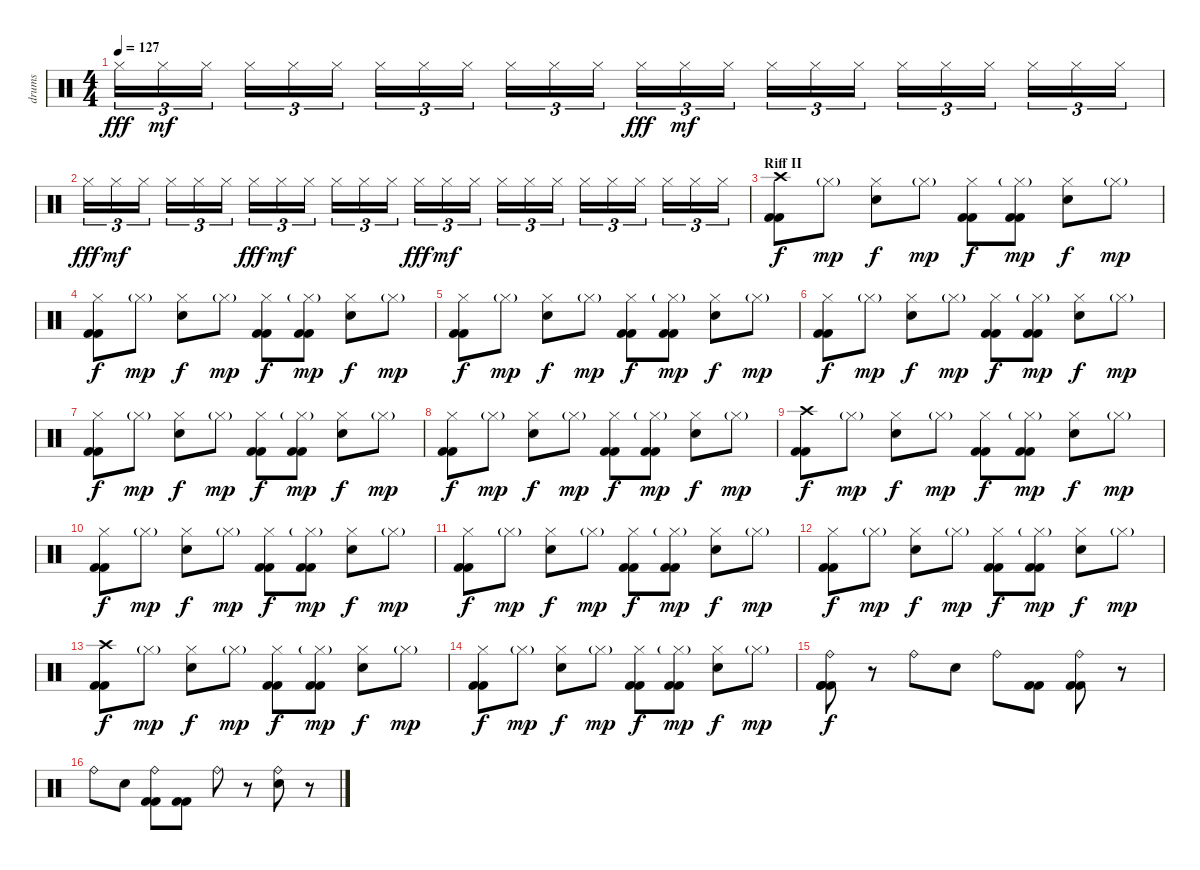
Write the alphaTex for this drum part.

\track ("drums" "drums") {instrument percussion}
\staff {score}
\articulation defaults
\ts (4 4)
\tempo 127
\clef neutral
\ks c "Hi-Hat (closed)".16{tu (3 2) dy fff} "Hi-Hat (closed)".16{tu (3 2) dy mf} "Hi-Hat (closed)".16{tu (3 2)} "Hi-Hat (closed)".16{tu (3 2)} "Hi-Hat (closed)".16{tu (3 2)} "Hi-Hat (closed)".16{tu (3 2)} "Hi-Hat (closed)".16{tu (3 2)} "Hi-Hat (closed)".16{tu (3 2)} "Hi-Hat (closed)".16{tu (3 2)} "Hi-Hat (closed)".16{tu (3 2)} "Hi-Hat (closed)".16{tu (3 2)} "Hi-Hat (closed)".16{tu (3 2)} "Hi-Hat (closed)".16{tu (3 2) dy fff} "Hi-Hat (closed)".16{tu (3 2) dy mf} "Hi-Hat (closed)".16{tu (3 2)} "Hi-Hat (closed)".16{tu (3 2)} "Hi-Hat (closed)".16{tu (3 2)} "Hi-Hat (closed)".16{tu (3 2)} "Hi-Hat (closed)".16{tu (3 2)} "Hi-Hat (closed)".16{tu (3 2)} "Hi-Hat (closed)".16{tu (3 2)} "Hi-Hat (closed)".16{tu (3 2)} "Hi-Hat (closed)".16{tu (3 2)} "Hi-Hat (closed)".16{tu (3 2)}
|
"Hi-Hat (closed)".16{tu (3 2) dy fff} "Hi-Hat (closed)".16{tu (3 2) dy mf} "Hi-Hat (closed)".16{tu (3 2)} "Hi-Hat (closed)".16{tu (3 2)} "Hi-Hat (closed)".16{tu (3 2)} "Hi-Hat (closed)".16{tu (3 2)} "Hi-Hat (closed)".16{tu (3 2) dy fff} "Hi-Hat (closed)".16{tu (3 2) dy mf} "Hi-Hat (closed)".16{tu (3 2)} "Hi-Hat (closed)".16{tu (3 2)} "Hi-Hat (closed)".16{tu (3 2)} "Hi-Hat (closed)".16{tu (3 2)} "Hi-Hat (closed)".16{tu (3 2) dy fff} "Hi-Hat (closed)".16{tu (3 2) dy mf} "Hi-Hat (closed)".16{tu (3 2)} "Hi-Hat (closed)".16{tu (3 2)} "Hi-Hat (closed)".16{tu (3 2)} "Hi-Hat (closed)".16{tu (3 2)} "Hi-Hat (closed)".16{tu (3 2)} "Hi-Hat (closed)".16{tu (3 2)} "Hi-Hat (closed)".16{tu (3 2)} "Hi-Hat (closed)".16{tu (3 2)} "Hi-Hat (closed)".16{tu (3 2)} "Hi-Hat (closed)".16{tu (3 2)} |
\section ("" "Riff II")
("Crash high (hit)" "Kick (hit) 2" "Kick (hit) 2").8{dy f} "Hi-Hat (closed)"{g}.8{dy mp} ("Hi-Hat (closed)" "Electric Snare (hit)").8{dy f} "Hi-Hat (closed)"{g}.8{dy mp} ("Hi-Hat (closed)" "Kick (hit) 2" "Kick (hit) 2").8{dy f} ("Hi-Hat (closed)"{g} "Kick (hit) 2" "Kick (hit) 2").8{dy mp} ("Hi-Hat (closed)" "Electric Snare (hit)").8{dy f} "Hi-Hat (closed)"{g}.8{dy mp} |
("Hi-Hat (closed)" "Kick (hit) 2" "Kick (hit) 2").8{dy f} "Hi-Hat (closed)"{g}.8{dy mp} ("Hi-Hat (closed)" "Electric Snare (hit)").8{dy f} "Hi-Hat (closed)"{g}.8{dy mp} ("Hi-Hat (closed)" "Kick (hit) 2" "Kick (hit) 2").8{dy f} ("Hi-Hat (closed)"{g} "Kick (hit) 2" "Kick (hit) 2").8{dy mp} ("Hi-Hat (closed)" "Electric Snare (hit)").8{dy f} "Hi-Hat (closed)"{g}.8{dy mp} |
("Hi-Hat (closed)" "Kick (hit) 2" "Kick (hit) 2").8{dy f} "Hi-Hat (closed)"{g}.8{dy mp} ("Hi-Hat (closed)" "Electric Snare (hit)").8{dy f} "Hi-Hat (closed)"{g}.8{dy mp} ("Hi-Hat (closed)" "Kick (hit) 2" "Kick (hit) 2").8{dy f} ("Hi-Hat (closed)"{g} "Kick (hit) 2" "Kick (hit) 2").8{dy mp} ("Hi-Hat (closed)" "Electric Snare (hit)").8{dy f} "Hi-Hat (closed)"{g}.8{dy mp} |
("Hi-Hat (closed)" "Kick (hit) 2" "Kick (hit) 2").8{dy f} "Hi-Hat (closed)"{g}.8{dy mp} ("Hi-Hat (closed)" "Electric Snare (hit)").8{dy f} "Hi-Hat (closed)"{g}.8{dy mp} ("Hi-Hat (closed)" "Kick (hit) 2" "Kick (hit) 2").8{dy f} ("Hi-Hat (closed)"{g} "Kick (hit) 2" "Kick (hit) 2").8{dy mp} ("Hi-Hat (closed)" "Electric Snare (hit)").8{dy f} "Hi-Hat (closed)"{g}.8{dy mp} |
("Hi-Hat (closed)" "Kick (hit) 2" "Kick (hit) 2").8{dy f} "Hi-Hat (closed)"{g}.8{dy mp} ("Hi-Hat (closed)" "Electric Snare (hit)").8{dy f} "Hi-Hat (closed)"{g}.8{dy mp} ("Hi-Hat (closed)" "Kick (hit) 2" "Kick (hit) 2").8{dy f} ("Hi-Hat (closed)"{g} "Kick (hit) 2" "Kick (hit) 2").8{dy mp} ("Hi-Hat (closed)" "Electric Snare (hit)").8{dy f} "Hi-Hat (closed)"{g}.8{dy mp} |
("Hi-Hat (closed)" "Kick (hit) 2" "Kick (hit) 2").8{dy f} "Hi-Hat (closed)"{g}.8{dy mp} ("Hi-Hat (closed)" "Electric Snare (hit)").8{dy f} "Hi-Hat (closed)"{g}.8{dy mp} ("Hi-Hat (closed)" "Kick (hit) 2" "Kick (hit) 2").8{dy f} ("Hi-Hat (closed)"{g} "Kick (hit) 2" "Kick (hit) 2").8{dy mp} ("Hi-Hat (closed)" "Electric Snare (hit)").8{dy f} "Hi-Hat (closed)"{g}.8{dy mp} |
("Crash high (hit)" "Kick (hit) 2" "Kick (hit) 2").8{dy f} "Hi-Hat (closed)"{g}.8{dy mp} ("Hi-Hat (closed)" "Electric Snare (hit)").8{dy f} "Hi-Hat (closed)"{g}.8{dy mp} ("Hi-Hat (closed)" "Kick (hit) 2" "Kick (hit) 2").8{dy f} ("Hi-Hat (closed)"{g} "Kick (hit) 2" "Kick (hit) 2").8{dy mp} ("Hi-Hat (closed)" "Electric Snare (hit)").8{dy f} "Hi-Hat (closed)"{g}.8{dy mp} |
("Hi-Hat (closed)" "Kick (hit) 2" "Kick (hit) 2").8{dy f} "Hi-Hat (closed)"{g}.8{dy mp} ("Hi-Hat (closed)" "Electric Snare (hit)").8{dy f} "Hi-Hat (closed)"{g}.8{dy mp} ("Hi-Hat (closed)" "Kick (hit) 2" "Kick (hit) 2").8{dy f} ("Hi-Hat (closed)"{g} "Kick (hit) 2" "Kick (hit) 2").8{dy mp} ("Hi-Hat (closed)" "Electric Snare (hit)").8{dy f} "Hi-Hat (closed)"{g}.8{dy mp} |
("Hi-Hat (closed)" "Kick (hit) 2" "Kick (hit) 2").8{dy f} "Hi-Hat (closed)"{g}.8{dy mp} ("Hi-Hat (closed)" "Electric Snare (hit)").8{dy f} "Hi-Hat (closed)"{g}.8{dy mp} ("Hi-Hat (closed)" "Kick (hit) 2" "Kick (hit) 2").8{dy f} ("Hi-Hat (closed)"{g} "Kick (hit) 2" "Kick (hit) 2").8{dy mp} ("Hi-Hat (closed)" "Electric Snare (hit)").8{dy f} "Hi-Hat (closed)"{g}.8{dy mp} |
("Hi-Hat (closed)" "Kick (hit) 2" "Kick (hit) 2").8{dy f} "Hi-Hat (closed)"{g}.8{dy mp} ("Hi-Hat (closed)" "Electric Snare (hit)").8{dy f} "Hi-Hat (closed)"{g}.8{dy mp} ("Hi-Hat (closed)" "Kick (hit) 2" "Kick (hit) 2").8{dy f} ("Hi-Hat (closed)"{g} "Kick (hit) 2" "Kick (hit) 2").8{dy mp} ("Hi-Hat (closed)" "Electric Snare (hit)").8{dy f} "Hi-Hat (closed)"{g}.8{dy mp} |
("Crash high (hit)" "Kick (hit) 2" "Kick (hit) 2").8{dy f} "Hi-Hat (closed)"{g}.8{dy mp} ("Hi-Hat (closed)" "Electric Snare (hit)").8{dy f} "Hi-Hat (closed)"{g}.8{dy mp} ("Hi-Hat (closed)" "Kick (hit) 2" "Kick (hit) 2").8{dy f} ("Hi-Hat (closed)"{g} "Kick (hit) 2" "Kick (hit) 2").8{dy mp} ("Hi-Hat (closed)" "Electric Snare (hit)").8{dy f} "Hi-Hat (closed)"{g}.8{dy mp} |
("Hi-Hat (closed)" "Kick (hit) 2" "Kick (hit) 2").8{dy f} "Hi-Hat (closed)"{g}.8{dy mp} ("Hi-Hat (closed)" "Electric Snare (hit)").8{dy f} "Hi-Hat (closed)"{g}.8{dy mp} ("Hi-Hat (closed)" "Kick (hit) 2" "Kick (hit) 2").8{dy f} ("Hi-Hat (closed)"{g} "Kick (hit) 2" "Kick (hit) 2").8{dy mp} ("Hi-Hat (closed)" "Electric Snare (hit)").8{dy f} "Hi-Hat (closed)"{g}.8{dy mp} |
("Ride (bell)" "Kick (hit) 2" "Kick (hit) 2" "Kick (hit) 2").8{dy f} r.8 "Ride (bell)".8 "Electric Snare (hit)".8 "Ride (bell)".8 ("Kick (hit) 2" "Kick (hit) 2").8 ("Ride (bell)" "Kick (hit) 2" "Kick (hit) 2").8 r.8 |
"Ride (bell)".8 "Electric Snare (hit)".8 ("Ride (bell)" "Kick (hit) 2" "Kick (hit) 2").8 ("Kick (hit) 2" "Kick (hit) 2").8 "Ride (bell)".8 r.8 ("Ride (bell)" "Electric Snare (hit)").8 r.8
